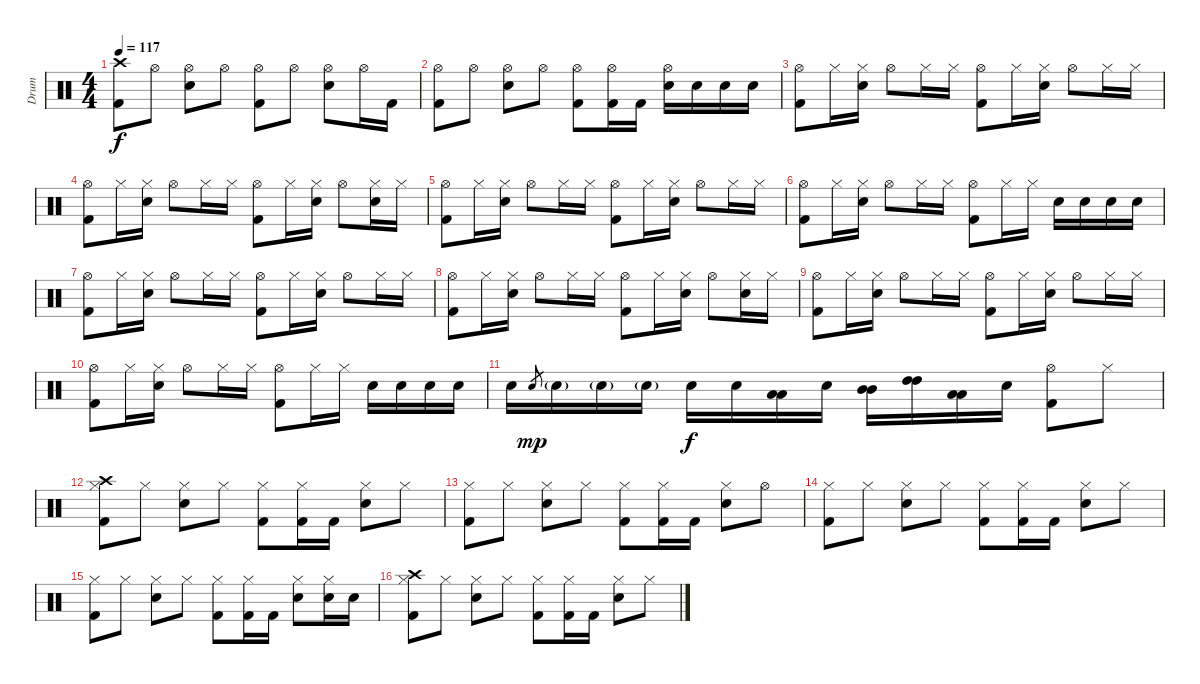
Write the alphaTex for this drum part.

\track ("Drum" "Drum") {instrument percussion}
\staff {score}
\articulation defaults
\ts (4 4)
\tempo 117
\clef neutral
\ks c
("Crash high (hit)" "Kick (hit) 2").8{dy f} "Hi-Hat (open)".8 ("Hi-Hat (open)" "Electric Snare (hit)").8 "Hi-Hat (open)".8 ("Hi-Hat (open)" "Kick (hit) 2").8 "Hi-Hat (open)".8 ("Hi-Hat (open)" "Electric Snare (hit)").8 "Hi-Hat (open)".16 "Kick (hit) 2".16 |
("Hi-Hat (open)" "Kick (hit) 2").8 "Hi-Hat (open)".8 ("Hi-Hat (open)" "Electric Snare (hit)").8 "Hi-Hat (open)".8 ("Hi-Hat (open)" "Kick (hit) 2").8 ("Hi-Hat (open)" "Kick (hit) 2").16 "Kick (hit) 2".16 ("Hi-Hat (open)" "Electric Snare (hit)").16 "Electric Snare (hit)".16 "Electric Snare (hit)".16 "Electric Snare (hit)".16 |
("Hi-Hat (open)" "Kick (hit) 2").8 "Hi-Hat (closed)".16 ("Hi-Hat (closed)" "Electric Snare (hit)").16 "Hi-Hat (open)".8 "Hi-Hat (closed)".16 "Hi-Hat (closed)".16 ("Hi-Hat (open)" "Kick (hit) 2").8 "Hi-Hat (closed)".16 ("Hi-Hat (closed)" "Electric Snare (hit)").16 "Hi-Hat (open)".8 "Hi-Hat (closed)".16 "Hi-Hat (closed)".16 |
("Hi-Hat (open)" "Kick (hit) 2").8 "Hi-Hat (closed)".16 ("Hi-Hat (closed)" "Electric Snare (hit)").16 "Hi-Hat (open)".8 "Hi-Hat (closed)".16 "Hi-Hat (closed)".16 ("Hi-Hat (open)" "Kick (hit) 2").8 "Hi-Hat (closed)".16 ("Hi-Hat (closed)" "Electric Snare (hit)").16 "Hi-Hat (open)".8 ("Hi-Hat (closed)" "Electric Snare (hit)").16 "Hi-Hat (closed)".16 |
("Hi-Hat (open)" "Kick (hit) 2").8 "Hi-Hat (closed)".16 ("Hi-Hat (closed)" "Electric Snare (hit)").16 "Hi-Hat (open)".8 "Hi-Hat (closed)".16 "Hi-Hat (closed)".16 ("Hi-Hat (open)" "Kick (hit) 2").8 "Hi-Hat (closed)".16 ("Hi-Hat (closed)" "Electric Snare (hit)").16 "Hi-Hat (open)".8 "Hi-Hat (closed)".16 "Hi-Hat (closed)".16 |
("Hi-Hat (open)" "Kick (hit) 2").8 "Hi-Hat (closed)".16 ("Hi-Hat (closed)" "Electric Snare (hit)").16 "Hi-Hat (open)".8 "Hi-Hat (closed)".16 "Hi-Hat (closed)".16 ("Hi-Hat (open)" "Kick (hit) 2").8 "Hi-Hat (closed)".16 "Hi-Hat (closed)".16 "Electric Snare (hit)".16 "Electric Snare (hit)".16 "Electric Snare (hit)".16 "Electric Snare (hit)".16 |
("Hi-Hat (open)" "Kick (hit) 2").8 "Hi-Hat (closed)".16 ("Hi-Hat (closed)" "Electric Snare (hit)").16 "Hi-Hat (open)".8 "Hi-Hat (closed)".16 "Hi-Hat (closed)".16 ("Hi-Hat (open)" "Kick (hit) 2").8 "Hi-Hat (closed)".16 ("Hi-Hat (closed)" "Electric Snare (hit)").16 "Hi-Hat (open)".8 "Hi-Hat (closed)".16 "Hi-Hat (closed)".16 |
("Hi-Hat (open)" "Kick (hit) 2").8 "Hi-Hat (closed)".16 ("Hi-Hat (closed)" "Electric Snare (hit)").16 "Hi-Hat (open)".8 "Hi-Hat (closed)".16 "Hi-Hat (closed)".16 ("Hi-Hat (open)" "Kick (hit) 2").8 "Hi-Hat (closed)".16 ("Hi-Hat (closed)" "Electric Snare (hit)").16 "Hi-Hat (open)".8 ("Hi-Hat (closed)" "Electric Snare (hit)").16 "Hi-Hat (closed)".16 |
("Hi-Hat (open)" "Kick (hit) 2").8 "Hi-Hat (closed)".16 ("Hi-Hat (closed)" "Electric Snare (hit)").16 "Hi-Hat (open)".8 "Hi-Hat (closed)".16 "Hi-Hat (closed)".16 ("Hi-Hat (open)" "Kick (hit) 2").8 "Hi-Hat (closed)".16 ("Hi-Hat (closed)" "Electric Snare (hit)").16 "Hi-Hat (open)".8 "Hi-Hat (closed)".16 "Hi-Hat (closed)".16 |
("Hi-Hat (open)" "Kick (hit) 2").8 "Hi-Hat (closed)".16 ("Hi-Hat (closed)" "Electric Snare (hit)").16 "Hi-Hat (open)".8 "Hi-Hat (closed)".16 "Hi-Hat (closed)".16 ("Hi-Hat (open)" "Kick (hit) 2").8 "Hi-Hat (closed)".16 "Hi-Hat (closed)".16 "Electric Snare (hit)".16 "Electric Snare (hit)".16 "Electric Snare (hit)".16 "Electric Snare (hit)".16 |
"Electric Snare (hit)".16 "Electric Snare (hit)".8{gr dy mp} "Electric Snare (hit)"{g}.16 "Electric Snare (hit)"{g}.16 "Electric Snare (hit)"{g}.16 "Electric Snare (hit)".16{dy f} "Electric Snare (hit)".16 ("Low Tom (hit)" "Low Tom (hit)").16 "Electric Snare (hit)".16 ("Mid Tom (hit)" "Mid Tom (hit)").16 ("High Tom (hit)" "High Tom (hit)").16 ("Low Tom (hit)" "Low Tom (hit)").16 "Electric Snare (hit)".16 ("Hi-Hat (open)" "Kick (hit) 2").8 "Hi-Hat (closed)".8 |
("Crash high (hit)" "Hi-Hat (closed)" "Kick (hit) 2").8 "Hi-Hat (closed)".8 ("Hi-Hat (closed)" "Electric Snare (hit)").8 "Hi-Hat (closed)".8 ("Hi-Hat (closed)" "Kick (hit) 2").8 ("Hi-Hat (closed)" "Kick (hit) 2").16 "Kick (hit) 2".16 ("Hi-Hat (closed)" "Electric Snare (hit)").8 "Hi-Hat (closed)".8 |
("Hi-Hat (closed)" "Kick (hit) 2").8 "Hi-Hat (closed)".8 ("Hi-Hat (closed)" "Electric Snare (hit)").8 "Hi-Hat (closed)".8 ("Hi-Hat (closed)" "Kick (hit) 2").8 ("Hi-Hat (closed)" "Kick (hit) 2").16 "Kick (hit) 2".16 ("Hi-Hat (closed)" "Electric Snare (hit)").8 "Hi-Hat (open)".8 |
("Hi-Hat (closed)" "Kick (hit) 2").8 "Hi-Hat (closed)".8 ("Hi-Hat (closed)" "Electric Snare (hit)").8 "Hi-Hat (closed)".8 ("Hi-Hat (closed)" "Kick (hit) 2").8 ("Hi-Hat (closed)" "Kick (hit) 2").16 "Kick (hit) 2".16 ("Hi-Hat (closed)" "Electric Snare (hit)").8 "Hi-Hat (closed)".8 |
("Hi-Hat (closed)" "Kick (hit) 2").8 "Hi-Hat (closed)".8 ("Hi-Hat (closed)" "Electric Snare (hit)").8 "Hi-Hat (closed)".8 ("Hi-Hat (closed)" "Kick (hit) 2").8 ("Hi-Hat (closed)" "Kick (hit) 2").16 "Kick (hit) 2".16 ("Hi-Hat (closed)" "Electric Snare (hit)").8 ("Hi-Hat (closed)" "Electric Snare (hit)").16 "Electric Snare (hit)".16 |
("Crash high (hit)" "Hi-Hat (closed)" "Kick (hit) 2").8 "Hi-Hat (closed)".8 ("Hi-Hat (closed)" "Electric Snare (hit)").8 "Hi-Hat (closed)".8 ("Hi-Hat (closed)" "Kick (hit) 2").8 ("Hi-Hat (closed)" "Kick (hit) 2").16 "Kick (hit) 2".16 ("Hi-Hat (closed)" "Electric Snare (hit)").8 "Hi-Hat (closed)".8
